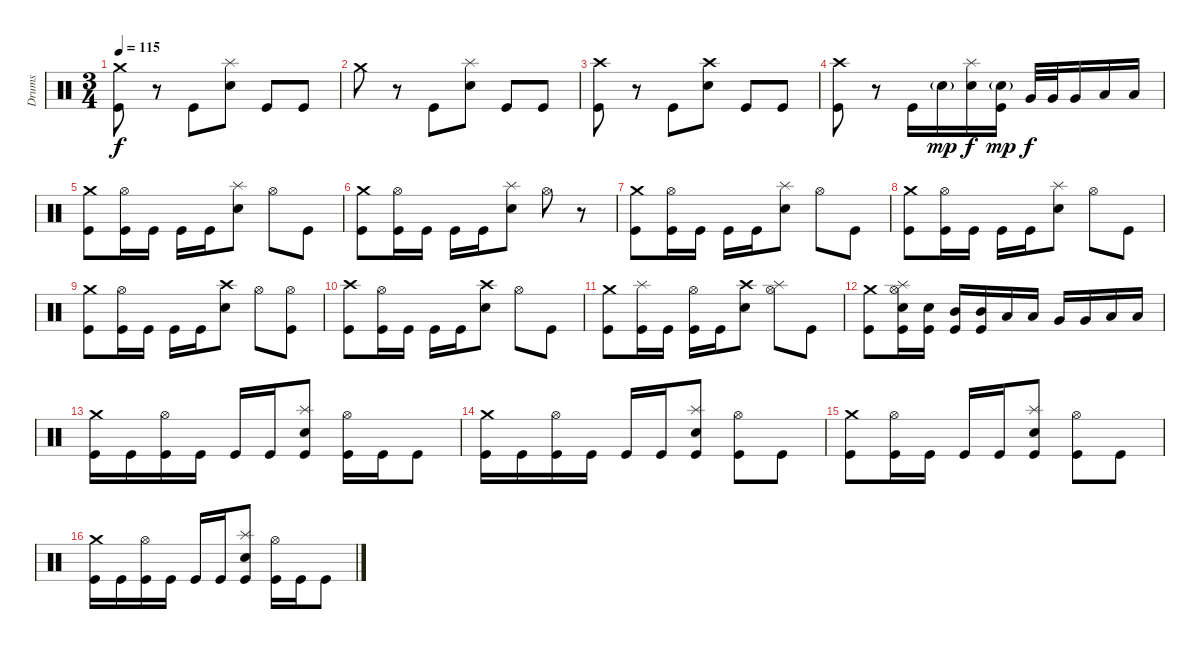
\track ("Drums" "Drums") {instrument percussion}
\staff {score}
\articulation defaults
\ts (3 4)
\tempo 115
\clef neutral
\ks c
("Crash medium (hit)" "Kick (hit)").8{dy f} r.8 "Kick (hit)".8 ("Splash (hit)" "Electric Snare (hit)").8 "Kick (hit)".8 "Kick (hit)".8 |
"Crash medium (hit)".8 r.8 "Kick (hit)".8 ("Splash (hit)" "Electric Snare (hit)").8 "Kick (hit)".8 "Kick (hit)".8 |
("Crash high (hit)" "Kick (hit)").8 r.8 "Kick (hit)".8 ("Crash high (hit)" "Electric Snare (hit)").8 "Kick (hit)".8 "Kick (hit)".8 |
("Crash high (hit)" "Kick (hit)").8 r.8 "Kick (hit)".16 "Electric Snare (hit)"{g}.16{dy mp} ("Splash (hit)" "Electric Snare (hit)").16{dy f} ("Electric Snare (hit)"{g} "Kick (hit)").16{dy mp} "Very Low Tom (hit)".32{dy f} "Very Low Tom (hit)".32 "Very Low Tom (hit)".16 "Low Tom (hit)".16 "Low Tom (hit)".16 |
("Crash medium (hit)" "Kick (hit)").8 ("Hi-Hat (open)" "Kick (hit)").16 "Kick (hit)".16 "Kick (hit)".16 "Kick (hit)".16 ("Splash (hit)" "Electric Snare (hit)").8 "Hi-Hat (open)".8 "Kick (hit)".8 |
("Crash medium (hit)" "Kick (hit)").8 ("Hi-Hat (open)" "Kick (hit)").16 "Kick (hit)".16 "Kick (hit)".16 "Kick (hit)".16 ("Splash (hit)" "Electric Snare (hit)").8 "Hi-Hat (open)".8 r.8 |
("Crash medium (hit)" "Kick (hit)").8 ("Hi-Hat (open)" "Kick (hit)").16 "Kick (hit)".16 "Kick (hit)".16 "Kick (hit)".16 ("Splash (hit)" "Electric Snare (hit)").8 "Hi-Hat (open)".8 "Kick (hit)".8 |
("Crash medium (hit)" "Kick (hit)").8 ("Hi-Hat (open)" "Kick (hit)").16 "Kick (hit)".16 "Kick (hit)".16 "Kick (hit)".16 ("Splash (hit)" "Electric Snare (hit)").8 "Hi-Hat (open)".8 "Kick (hit)".8 |
("Crash medium (hit)" "Kick (hit)").8 ("Hi-Hat (open)" "Kick (hit)").16 "Kick (hit)".16 "Kick (hit)".16 "Kick (hit)".16 ("Crash high (hit)" "Electric Snare (hit)").8 "Hi-Hat (open)".8 ("Hi-Hat (open)" "Kick (hit)").8 |
("Crash high (hit)" "Kick (hit)").8 ("Hi-Hat (open)" "Kick (hit)").16 "Kick (hit)".16 "Kick (hit)".16 "Kick (hit)".16 ("Crash high (hit)" "Electric Snare (hit)").8 "Hi-Hat (open)".8 "Kick (hit)".8 |
("Crash medium (hit)" "Kick (hit)").8 ("Splash (hit)" "Kick (hit)").16 "Kick (hit)".16 ("Hi-Hat (open)" "Kick (hit)").16 "Kick (hit)".16 ("Crash high (hit)" "Electric Snare (hit)").8 ("Splash (hit)" "Hi-Hat (open)").8 "Kick (hit)".8 |
("Crash medium (hit)" "Kick (hit)").8 ("Splash (hit)" "Electric Snare (hit)" "Hi-Hat (open)" "Kick (hit)").16 ("Electric Snare (hit)" "Kick (hit)").16 ("Mid Tom (hit)" "Kick (hit)").16 ("Mid Tom (hit)" "Kick (hit)").16 "Low Tom (hit)".16 "Low Tom (hit)".16 "Very Low Tom (hit)".16 "Very Low Tom (hit)".16 "Low Floor Tom (hit)".16 "Low Floor Tom (hit)".16 |
("Crash medium (hit)" "Kick (hit)").16 "Kick (hit)".16 ("Hi-Hat (open)" "Kick (hit)").16 "Kick (hit)".16 "Kick (hit)".16 "Kick (hit)".16 ("Splash (hit)" "Electric Snare (hit)" "Kick (hit)").8 ("Hi-Hat (open)" "Kick (hit)").16 "Kick (hit)".16 "Kick (hit)".8 |
("Crash medium (hit)" "Kick (hit)").16 "Kick (hit)".16 ("Hi-Hat (open)" "Kick (hit)").16 "Kick (hit)".16 "Kick (hit)".16 "Kick (hit)".16 ("Splash (hit)" "Electric Snare (hit)" "Kick (hit)").8 ("Hi-Hat (open)" "Kick (hit)").8 "Kick (hit)".8 |
("Crash medium (hit)" "Kick (hit)").8 ("Hi-Hat (open)" "Kick (hit)").16 "Kick (hit)".16 "Kick (hit)".16 "Kick (hit)".16 ("Splash (hit)" "Electric Snare (hit)" "Kick (hit)").8 ("Hi-Hat (open)" "Kick (hit)").8 "Kick (hit)".8 |
("Crash medium (hit)" "Kick (hit)").16 "Kick (hit)".16 ("Hi-Hat (open)" "Kick (hit)").16 "Kick (hit)".16 "Kick (hit)".16 "Kick (hit)".16 ("Splash (hit)" "Electric Snare (hit)" "Kick (hit)").8 ("Hi-Hat (open)" "Kick (hit)").16 "Kick (hit)".16 "Kick (hit)".8
